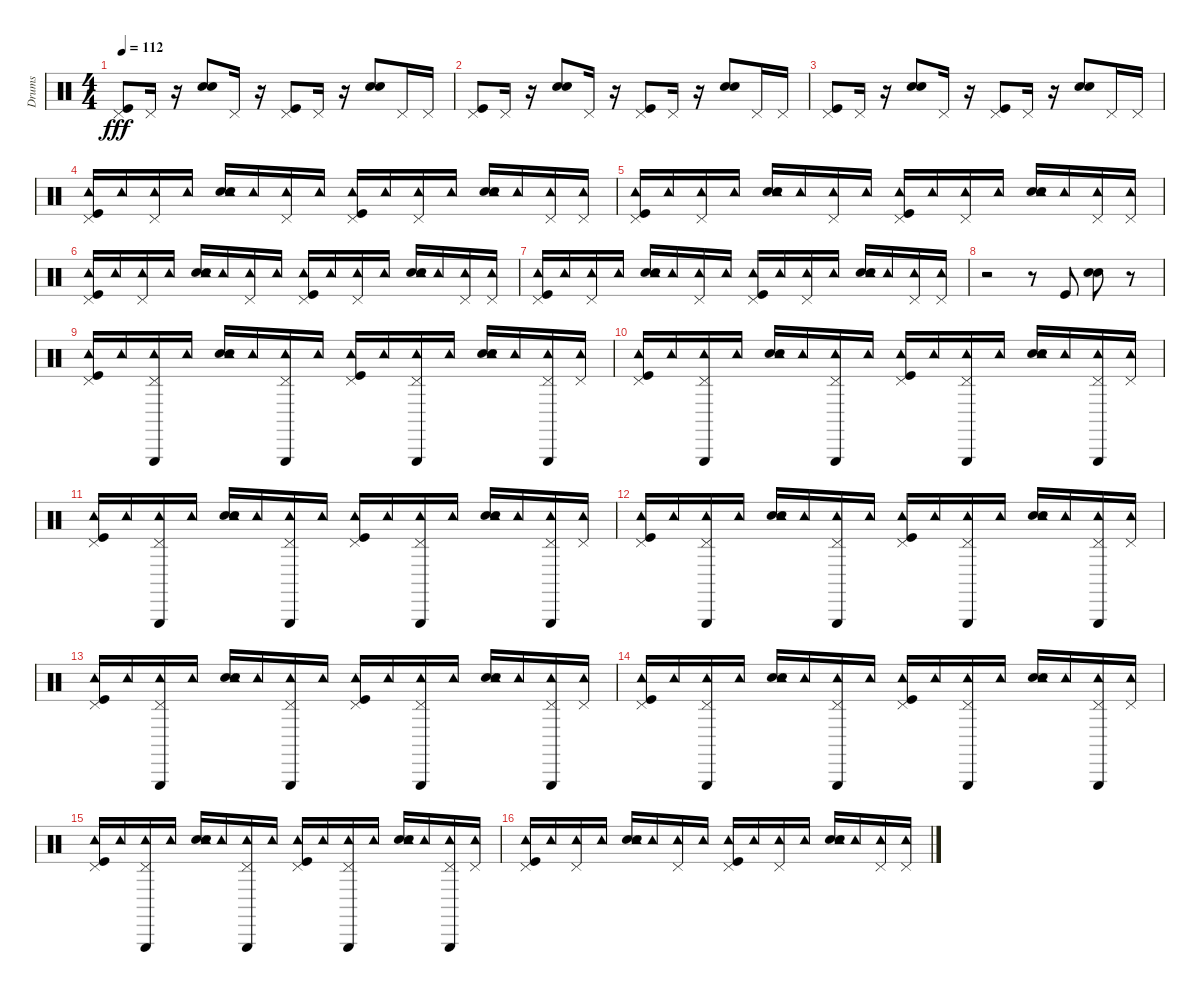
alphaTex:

\track ("Drums" "Drums") {instrument percussion}
\staff {score}
\articulation defaults
\ts (4 4)
\tempo 112
\clef neutral
\ks c
("Pedal Hi-Hat (hit)" "Kick (hit)").8{dy fff} "Pedal Hi-Hat (hit)".16 r.16 ("Snare (hit) 2" "Hand Clap (hit)").8 "Pedal Hi-Hat (hit)".16 r.16 ("Pedal Hi-Hat (hit)" "Kick (hit)").8 "Pedal Hi-Hat (hit)".16 r.16 ("Snare (hit) 2" "Hand Clap (hit)").8 "Pedal Hi-Hat (hit)".16 "Pedal Hi-Hat (hit)".16 |
("Pedal Hi-Hat (hit)" "Kick (hit)").8 "Pedal Hi-Hat (hit)".16 r.16 ("Snare (hit) 2" "Hand Clap (hit)").8 "Pedal Hi-Hat (hit)".16 r.16 ("Pedal Hi-Hat (hit)" "Kick (hit)").8 "Pedal Hi-Hat (hit)".16 r.16 ("Snare (hit) 2" "Hand Clap (hit)").8 "Pedal Hi-Hat (hit)".16 "Pedal Hi-Hat (hit)".16 |
("Pedal Hi-Hat (hit)" "Kick (hit)").8 "Pedal Hi-Hat (hit)".16 r.16 ("Snare (hit) 2" "Hand Clap (hit)").8 "Pedal Hi-Hat (hit)".16 r.16 ("Pedal Hi-Hat (hit)" "Kick (hit)").8 "Pedal Hi-Hat (hit)".16 r.16 ("Snare (hit) 2" "Hand Clap (hit)").8 "Pedal Hi-Hat (hit)".16 "Pedal Hi-Hat (hit)".16 |
("Pedal Hi-Hat (hit)" "Tambourine (hit)" "Kick (hit)").16 "Tambourine (hit)".16 ("Pedal Hi-Hat (hit)" "Tambourine (hit)").16 "Tambourine (hit)".16 ("Snare (hit) 2" "Hand Clap (hit)" "Tambourine (hit)").16 "Tambourine (hit)".16 ("Pedal Hi-Hat (hit)" "Tambourine (hit)").16 "Tambourine (hit)".16 ("Pedal Hi-Hat (hit)" "Tambourine (hit)" "Kick (hit)").16 "Tambourine (hit)".16 ("Pedal Hi-Hat (hit)" "Tambourine (hit)").16 "Tambourine (hit)".16 ("Snare (hit) 2" "Hand Clap (hit)" "Tambourine (hit)").16 "Tambourine (hit)".16 ("Pedal Hi-Hat (hit)" "Tambourine (hit)").16 ("Pedal Hi-Hat (hit)" "Tambourine (hit)").16 |
("Pedal Hi-Hat (hit)" "Tambourine (hit)" "Kick (hit)").16 "Tambourine (hit)".16 ("Pedal Hi-Hat (hit)" "Tambourine (hit)").16 "Tambourine (hit)".16 ("Snare (hit) 2" "Hand Clap (hit)" "Tambourine (hit)").16 "Tambourine (hit)".16 ("Pedal Hi-Hat (hit)" "Tambourine (hit)").16 "Tambourine (hit)".16 ("Pedal Hi-Hat (hit)" "Tambourine (hit)" "Kick (hit)").16 "Tambourine (hit)".16 ("Pedal Hi-Hat (hit)" "Tambourine (hit)").16 "Tambourine (hit)".16 ("Snare (hit) 2" "Hand Clap (hit)" "Tambourine (hit)").16 "Tambourine (hit)".16 ("Pedal Hi-Hat (hit)" "Tambourine (hit)").16 ("Pedal Hi-Hat (hit)" "Tambourine (hit)").16 |
("Pedal Hi-Hat (hit)" "Tambourine (hit)" "Kick (hit)").16 "Tambourine (hit)".16 ("Pedal Hi-Hat (hit)" "Tambourine (hit)").16 "Tambourine (hit)".16 ("Snare (hit) 2" "Hand Clap (hit)" "Tambourine (hit)").16 "Tambourine (hit)".16 ("Pedal Hi-Hat (hit)" "Tambourine (hit)").16 "Tambourine (hit)".16 ("Pedal Hi-Hat (hit)" "Tambourine (hit)" "Kick (hit)").16 "Tambourine (hit)".16 ("Pedal Hi-Hat (hit)" "Tambourine (hit)").16 "Tambourine (hit)".16 ("Snare (hit) 2" "Hand Clap (hit)" "Tambourine (hit)").16 "Tambourine (hit)".16 ("Pedal Hi-Hat (hit)" "Tambourine (hit)").16 ("Pedal Hi-Hat (hit)" "Tambourine (hit)").16 |
("Pedal Hi-Hat (hit)" "Tambourine (hit)" "Kick (hit)").16 "Tambourine (hit)".16 ("Pedal Hi-Hat (hit)" "Tambourine (hit)").16 "Tambourine (hit)".16 ("Snare (hit) 2" "Hand Clap (hit)" "Tambourine (hit)").16 "Tambourine (hit)".16 ("Pedal Hi-Hat (hit)" "Tambourine (hit)").16 "Tambourine (hit)".16 ("Pedal Hi-Hat (hit)" "Tambourine (hit)" "Kick (hit)").16 "Tambourine (hit)".16 ("Pedal Hi-Hat (hit)" "Tambourine (hit)").16 "Tambourine (hit)".16 ("Snare (hit) 2" "Hand Clap (hit)" "Tambourine (hit)").16 "Tambourine (hit)".16 ("Pedal Hi-Hat (hit)" "Tambourine (hit)").16 ("Pedal Hi-Hat (hit)" "Tambourine (hit)").16 |
r.2 r.8 "Kick (hit)".8 ("Snare (hit) 2" "Hand Clap (hit)").8 r.8 |
("Pedal Hi-Hat (hit)" "Tambourine (hit)" "Kick (hit)").16 "Tambourine (hit)".16 ("Pedal Hi-Hat (hit)" "Triangle (hit)" "Tambourine (hit)").16 "Tambourine (hit)".16 ("Snare (hit) 2" "Hand Clap (hit)" "Tambourine (hit)").16 "Tambourine (hit)".16 ("Pedal Hi-Hat (hit)" "Triangle (hit)" "Tambourine (hit)").16 "Tambourine (hit)".16 ("Pedal Hi-Hat (hit)" "Tambourine (hit)" "Kick (hit)").16 "Tambourine (hit)".16 ("Pedal Hi-Hat (hit)" "Triangle (hit)" "Tambourine (hit)").16 "Tambourine (hit)".16 ("Snare (hit) 2" "Hand Clap (hit)" "Tambourine (hit)").16 "Tambourine (hit)".16 ("Pedal Hi-Hat (hit)" "Triangle (hit)" "Tambourine (hit)").16 ("Pedal Hi-Hat (hit)" "Tambourine (hit)").16 |
("Pedal Hi-Hat (hit)" "Tambourine (hit)" "Kick (hit)").16 "Tambourine (hit)".16 ("Pedal Hi-Hat (hit)" "Triangle (hit)" "Tambourine (hit)").16 "Tambourine (hit)".16 ("Snare (hit) 2" "Hand Clap (hit)" "Tambourine (hit)").16 "Tambourine (hit)".16 ("Pedal Hi-Hat (hit)" "Triangle (hit)" "Tambourine (hit)").16 "Tambourine (hit)".16 ("Pedal Hi-Hat (hit)" "Tambourine (hit)" "Kick (hit)").16 "Tambourine (hit)".16 ("Pedal Hi-Hat (hit)" "Triangle (hit)" "Tambourine (hit)").16 "Tambourine (hit)".16 ("Snare (hit) 2" "Hand Clap (hit)" "Tambourine (hit)").16 "Tambourine (hit)".16 ("Pedal Hi-Hat (hit)" "Triangle (hit)" "Tambourine (hit)").16 ("Pedal Hi-Hat (hit)" "Tambourine (hit)").16 |
("Pedal Hi-Hat (hit)" "Tambourine (hit)" "Kick (hit)").16 "Tambourine (hit)".16 ("Pedal Hi-Hat (hit)" "Triangle (hit)" "Tambourine (hit)").16 "Tambourine (hit)".16 ("Snare (hit) 2" "Hand Clap (hit)" "Tambourine (hit)").16 "Tambourine (hit)".16 ("Pedal Hi-Hat (hit)" "Triangle (hit)" "Tambourine (hit)").16 "Tambourine (hit)".16 ("Pedal Hi-Hat (hit)" "Tambourine (hit)" "Kick (hit)").16 "Tambourine (hit)".16 ("Pedal Hi-Hat (hit)" "Triangle (hit)" "Tambourine (hit)").16 "Tambourine (hit)".16 ("Snare (hit) 2" "Hand Clap (hit)" "Tambourine (hit)").16 "Tambourine (hit)".16 ("Pedal Hi-Hat (hit)" "Triangle (hit)" "Tambourine (hit)").16 ("Pedal Hi-Hat (hit)" "Tambourine (hit)").16 |
("Pedal Hi-Hat (hit)" "Tambourine (hit)" "Kick (hit)").16 "Tambourine (hit)".16 ("Pedal Hi-Hat (hit)" "Triangle (hit)" "Tambourine (hit)").16 "Tambourine (hit)".16 ("Snare (hit) 2" "Hand Clap (hit)" "Tambourine (hit)").16 "Tambourine (hit)".16 ("Pedal Hi-Hat (hit)" "Triangle (hit)" "Tambourine (hit)").16 "Tambourine (hit)".16 ("Pedal Hi-Hat (hit)" "Tambourine (hit)" "Kick (hit)").16 "Tambourine (hit)".16 ("Pedal Hi-Hat (hit)" "Triangle (hit)" "Tambourine (hit)").16 "Tambourine (hit)".16 ("Snare (hit) 2" "Hand Clap (hit)" "Tambourine (hit)").16 "Tambourine (hit)".16 ("Pedal Hi-Hat (hit)" "Triangle (hit)" "Tambourine (hit)").16 ("Pedal Hi-Hat (hit)" "Tambourine (hit)").16 |
("Pedal Hi-Hat (hit)" "Tambourine (hit)" "Kick (hit)").16 "Tambourine (hit)".16 ("Pedal Hi-Hat (hit)" "Triangle (hit)" "Tambourine (hit)").16 "Tambourine (hit)".16 ("Snare (hit) 2" "Hand Clap (hit)" "Tambourine (hit)").16 "Tambourine (hit)".16 ("Pedal Hi-Hat (hit)" "Triangle (hit)" "Tambourine (hit)").16 "Tambourine (hit)".16 ("Pedal Hi-Hat (hit)" "Tambourine (hit)" "Kick (hit)").16 "Tambourine (hit)".16 ("Pedal Hi-Hat (hit)" "Triangle (hit)" "Tambourine (hit)").16 "Tambourine (hit)".16 ("Snare (hit) 2" "Hand Clap (hit)" "Tambourine (hit)").16 "Tambourine (hit)".16 ("Pedal Hi-Hat (hit)" "Triangle (hit)" "Tambourine (hit)").16 ("Pedal Hi-Hat (hit)" "Tambourine (hit)").16 |
("Pedal Hi-Hat (hit)" "Tambourine (hit)" "Kick (hit)").16 "Tambourine (hit)".16 ("Pedal Hi-Hat (hit)" "Triangle (hit)" "Tambourine (hit)").16 "Tambourine (hit)".16 ("Snare (hit) 2" "Hand Clap (hit)" "Tambourine (hit)").16 "Tambourine (hit)".16 ("Pedal Hi-Hat (hit)" "Triangle (hit)" "Tambourine (hit)").16 "Tambourine (hit)".16 ("Pedal Hi-Hat (hit)" "Tambourine (hit)" "Kick (hit)").16 "Tambourine (hit)".16 ("Pedal Hi-Hat (hit)" "Triangle (hit)" "Tambourine (hit)").16 "Tambourine (hit)".16 ("Snare (hit) 2" "Hand Clap (hit)" "Tambourine (hit)").16 "Tambourine (hit)".16 ("Pedal Hi-Hat (hit)" "Triangle (hit)" "Tambourine (hit)").16 ("Pedal Hi-Hat (hit)" "Tambourine (hit)").16 |
("Pedal Hi-Hat (hit)" "Tambourine (hit)" "Kick (hit)").16 "Tambourine (hit)".16 ("Pedal Hi-Hat (hit)" "Triangle (hit)" "Tambourine (hit)").16 "Tambourine (hit)".16 ("Snare (hit) 2" "Hand Clap (hit)" "Tambourine (hit)").16 "Tambourine (hit)".16 ("Pedal Hi-Hat (hit)" "Triangle (hit)" "Tambourine (hit)").16 "Tambourine (hit)".16 ("Pedal Hi-Hat (hit)" "Tambourine (hit)" "Kick (hit)").16 "Tambourine (hit)".16 ("Pedal Hi-Hat (hit)" "Triangle (hit)" "Tambourine (hit)").16 "Tambourine (hit)".16 ("Snare (hit) 2" "Hand Clap (hit)" "Tambourine (hit)").16 "Tambourine (hit)".16 ("Pedal Hi-Hat (hit)" "Triangle (hit)" "Tambourine (hit)").16 ("Pedal Hi-Hat (hit)" "Tambourine (hit)").16 |
("Pedal Hi-Hat (hit)" "Tambourine (hit)" "Kick (hit)").16 "Tambourine (hit)".16 ("Pedal Hi-Hat (hit)" "Tambourine (hit)").16 "Tambourine (hit)".16 ("Snare (hit) 2" "Hand Clap (hit)" "Tambourine (hit)").16 "Tambourine (hit)".16 ("Pedal Hi-Hat (hit)" "Tambourine (hit)").16 "Tambourine (hit)".16 ("Pedal Hi-Hat (hit)" "Tambourine (hit)" "Kick (hit)").16 "Tambourine (hit)".16 ("Pedal Hi-Hat (hit)" "Tambourine (hit)").16 "Tambourine (hit)".16 ("Snare (hit) 2" "Hand Clap (hit)" "Tambourine (hit)").16 "Tambourine (hit)".16 ("Pedal Hi-Hat (hit)" "Tambourine (hit)").16 ("Pedal Hi-Hat (hit)" "Tambourine (hit)").16
